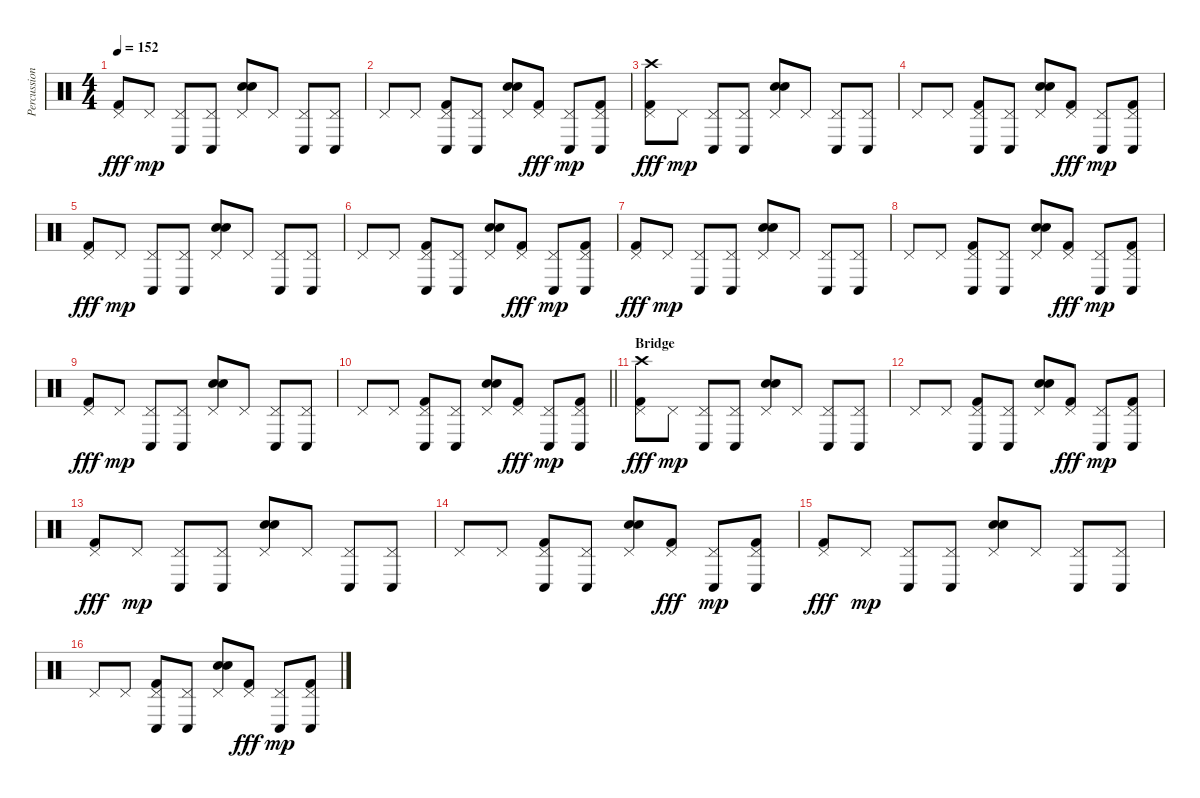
\track ("Percussion" "Percussion") {instrument percussion}
\staff {score}
\articulation defaults
\ts (4 4)
\tempo 152
\clef neutral
\ks c
("Pedal Hi-Hat (hit)" "Kick (hit) 2").8{dy fff} "Pedal Hi-Hat (hit)".8{dy mp} ("Pedal Hi-Hat (hit)" "Conga low (hit)").8 ("Pedal Hi-Hat (hit)" "Conga low (hit)").8 ("Pedal Hi-Hat (hit)" "Electric Snare (hit)" "Hand Clap (hit)").8 "Pedal Hi-Hat (hit)".8 ("Pedal Hi-Hat (hit)" "Conga low (hit)").8 ("Pedal Hi-Hat (hit)" "Conga low (hit)").8 |
"Pedal Hi-Hat (hit)".8 "Pedal Hi-Hat (hit)".8 ("Pedal Hi-Hat (hit)" "Kick (hit) 2" "Conga low (hit)").8 ("Pedal Hi-Hat (hit)" "Conga low (hit)").8 ("Pedal Hi-Hat (hit)" "Electric Snare (hit)" "Hand Clap (hit)").8 ("Pedal Hi-Hat (hit)" "Kick (hit) 2").8{dy fff} ("Pedal Hi-Hat (hit)" "Conga low (hit)").8{dy mp} ("Pedal Hi-Hat (hit)" "Kick (hit) 2" "Conga low (hit)").8 |
("Pedal Hi-Hat (hit)" "Kick (hit) 2" "Crash high (hit)").8{dy fff} "Pedal Hi-Hat (hit)".8{dy mp} ("Pedal Hi-Hat (hit)" "Conga low (hit)").8 ("Pedal Hi-Hat (hit)" "Conga low (hit)").8 ("Pedal Hi-Hat (hit)" "Electric Snare (hit)" "Hand Clap (hit)").8 "Pedal Hi-Hat (hit)".8 ("Pedal Hi-Hat (hit)" "Conga low (hit)").8 ("Pedal Hi-Hat (hit)" "Conga low (hit)").8 |
"Pedal Hi-Hat (hit)".8 "Pedal Hi-Hat (hit)".8 ("Pedal Hi-Hat (hit)" "Kick (hit) 2" "Conga low (hit)").8 ("Pedal Hi-Hat (hit)" "Conga low (hit)").8 ("Pedal Hi-Hat (hit)" "Electric Snare (hit)" "Hand Clap (hit)").8 ("Pedal Hi-Hat (hit)" "Kick (hit) 2").8{dy fff} ("Pedal Hi-Hat (hit)" "Conga low (hit)").8{dy mp} ("Pedal Hi-Hat (hit)" "Kick (hit) 2" "Conga low (hit)").8 |
("Pedal Hi-Hat (hit)" "Kick (hit) 2").8{dy fff} "Pedal Hi-Hat (hit)".8{dy mp} ("Pedal Hi-Hat (hit)" "Conga low (hit)").8 ("Pedal Hi-Hat (hit)" "Conga low (hit)").8 ("Pedal Hi-Hat (hit)" "Electric Snare (hit)" "Hand Clap (hit)").8 "Pedal Hi-Hat (hit)".8 ("Pedal Hi-Hat (hit)" "Conga low (hit)").8 ("Pedal Hi-Hat (hit)" "Conga low (hit)").8 |
"Pedal Hi-Hat (hit)".8 "Pedal Hi-Hat (hit)".8 ("Pedal Hi-Hat (hit)" "Kick (hit) 2" "Conga low (hit)").8 ("Pedal Hi-Hat (hit)" "Conga low (hit)").8 ("Pedal Hi-Hat (hit)" "Electric Snare (hit)" "Hand Clap (hit)").8 ("Pedal Hi-Hat (hit)" "Kick (hit) 2").8{dy fff} ("Pedal Hi-Hat (hit)" "Conga low (hit)").8{dy mp} ("Pedal Hi-Hat (hit)" "Kick (hit) 2" "Conga low (hit)").8 |
("Pedal Hi-Hat (hit)" "Kick (hit) 2").8{dy fff} "Pedal Hi-Hat (hit)".8{dy mp} ("Pedal Hi-Hat (hit)" "Conga low (hit)").8 ("Pedal Hi-Hat (hit)" "Conga low (hit)").8 ("Pedal Hi-Hat (hit)" "Electric Snare (hit)" "Hand Clap (hit)").8 "Pedal Hi-Hat (hit)".8 ("Pedal Hi-Hat (hit)" "Conga low (hit)").8 ("Pedal Hi-Hat (hit)" "Conga low (hit)").8 |
"Pedal Hi-Hat (hit)".8 "Pedal Hi-Hat (hit)".8 ("Pedal Hi-Hat (hit)" "Kick (hit) 2" "Conga low (hit)").8 ("Pedal Hi-Hat (hit)" "Conga low (hit)").8 ("Pedal Hi-Hat (hit)" "Electric Snare (hit)" "Hand Clap (hit)").8 ("Pedal Hi-Hat (hit)" "Kick (hit) 2").8{dy fff} ("Pedal Hi-Hat (hit)" "Conga low (hit)").8{dy mp} ("Pedal Hi-Hat (hit)" "Kick (hit) 2" "Conga low (hit)").8 |
("Pedal Hi-Hat (hit)" "Kick (hit) 2").8{dy fff} "Pedal Hi-Hat (hit)".8{dy mp} ("Pedal Hi-Hat (hit)" "Conga low (hit)").8 ("Pedal Hi-Hat (hit)" "Conga low (hit)").8 ("Pedal Hi-Hat (hit)" "Electric Snare (hit)" "Hand Clap (hit)").8 "Pedal Hi-Hat (hit)".8 ("Pedal Hi-Hat (hit)" "Conga low (hit)").8 ("Pedal Hi-Hat (hit)" "Conga low (hit)").8 |
\barLineRight lightlight "Pedal Hi-Hat (hit)".8 "Pedal Hi-Hat (hit)".8
("Pedal Hi-Hat (hit)" "Kick (hit) 2" "Conga low (hit)").8 ("Pedal Hi-Hat (hit)" "Conga low (hit)").8 ("Pedal Hi-Hat (hit)" "Electric Snare (hit)" "Hand Clap (hit)").8 ("Pedal Hi-Hat (hit)" "Kick (hit) 2").8{dy fff} ("Pedal Hi-Hat (hit)" "Conga low (hit)").8{dy mp} ("Pedal Hi-Hat (hit)" "Kick (hit) 2" "Conga low (hit)").8 |
\section ("" "Bridge")
("Pedal Hi-Hat (hit)" "Kick (hit) 2" "Crash high (hit)").8{dy fff} "Pedal Hi-Hat (hit)".8{dy mp} ("Pedal Hi-Hat (hit)" "Conga low (hit)").8 ("Pedal Hi-Hat (hit)" "Conga low (hit)").8 ("Pedal Hi-Hat (hit)" "Electric Snare (hit)" "Hand Clap (hit)").8 "Pedal Hi-Hat (hit)".8 ("Pedal Hi-Hat (hit)" "Conga low (hit)").8 ("Pedal Hi-Hat (hit)" "Conga low (hit)").8 |
"Pedal Hi-Hat (hit)".8 "Pedal Hi-Hat (hit)".8 ("Pedal Hi-Hat (hit)" "Kick (hit) 2" "Conga low (hit)").8 ("Pedal Hi-Hat (hit)" "Conga low (hit)").8 ("Pedal Hi-Hat (hit)" "Electric Snare (hit)" "Hand Clap (hit)").8 ("Pedal Hi-Hat (hit)" "Kick (hit) 2").8{dy fff} ("Pedal Hi-Hat (hit)" "Conga low (hit)").8{dy mp} ("Pedal Hi-Hat (hit)" "Kick (hit) 2" "Conga low (hit)").8 |
("Pedal Hi-Hat (hit)" "Kick (hit) 2").8{dy fff} "Pedal Hi-Hat (hit)".8{dy mp} ("Pedal Hi-Hat (hit)" "Conga low (hit)").8 ("Pedal Hi-Hat (hit)" "Conga low (hit)").8 ("Pedal Hi-Hat (hit)" "Electric Snare (hit)" "Hand Clap (hit)").8 "Pedal Hi-Hat (hit)".8 ("Pedal Hi-Hat (hit)" "Conga low (hit)").8 ("Pedal Hi-Hat (hit)" "Conga low (hit)").8 |
"Pedal Hi-Hat (hit)".8 "Pedal Hi-Hat (hit)".8 ("Pedal Hi-Hat (hit)" "Kick (hit) 2" "Conga low (hit)").8 ("Pedal Hi-Hat (hit)" "Conga low (hit)").8 ("Pedal Hi-Hat (hit)" "Electric Snare (hit)" "Hand Clap (hit)").8 ("Pedal Hi-Hat (hit)" "Kick (hit) 2").8{dy fff} ("Pedal Hi-Hat (hit)" "Conga low (hit)").8{dy mp} ("Pedal Hi-Hat (hit)" "Kick (hit) 2" "Conga low (hit)").8 |
("Pedal Hi-Hat (hit)" "Kick (hit) 2").8{dy fff} "Pedal Hi-Hat (hit)".8{dy mp} ("Pedal Hi-Hat (hit)" "Conga low (hit)").8 ("Pedal Hi-Hat (hit)" "Conga low (hit)").8 ("Pedal Hi-Hat (hit)" "Electric Snare (hit)" "Hand Clap (hit)").8 "Pedal Hi-Hat (hit)".8 ("Pedal Hi-Hat (hit)" "Conga low (hit)").8 ("Pedal Hi-Hat (hit)" "Conga low (hit)").8 |
"Pedal Hi-Hat (hit)".8 "Pedal Hi-Hat (hit)".8 ("Pedal Hi-Hat (hit)" "Kick (hit) 2" "Conga low (hit)").8 ("Pedal Hi-Hat (hit)" "Conga low (hit)").8 ("Pedal Hi-Hat (hit)" "Electric Snare (hit)" "Hand Clap (hit)").8 ("Pedal Hi-Hat (hit)" "Kick (hit) 2").8{dy fff} ("Pedal Hi-Hat (hit)" "Conga low (hit)").8{dy mp} ("Pedal Hi-Hat (hit)" "Kick (hit) 2" "Conga low (hit)").8
